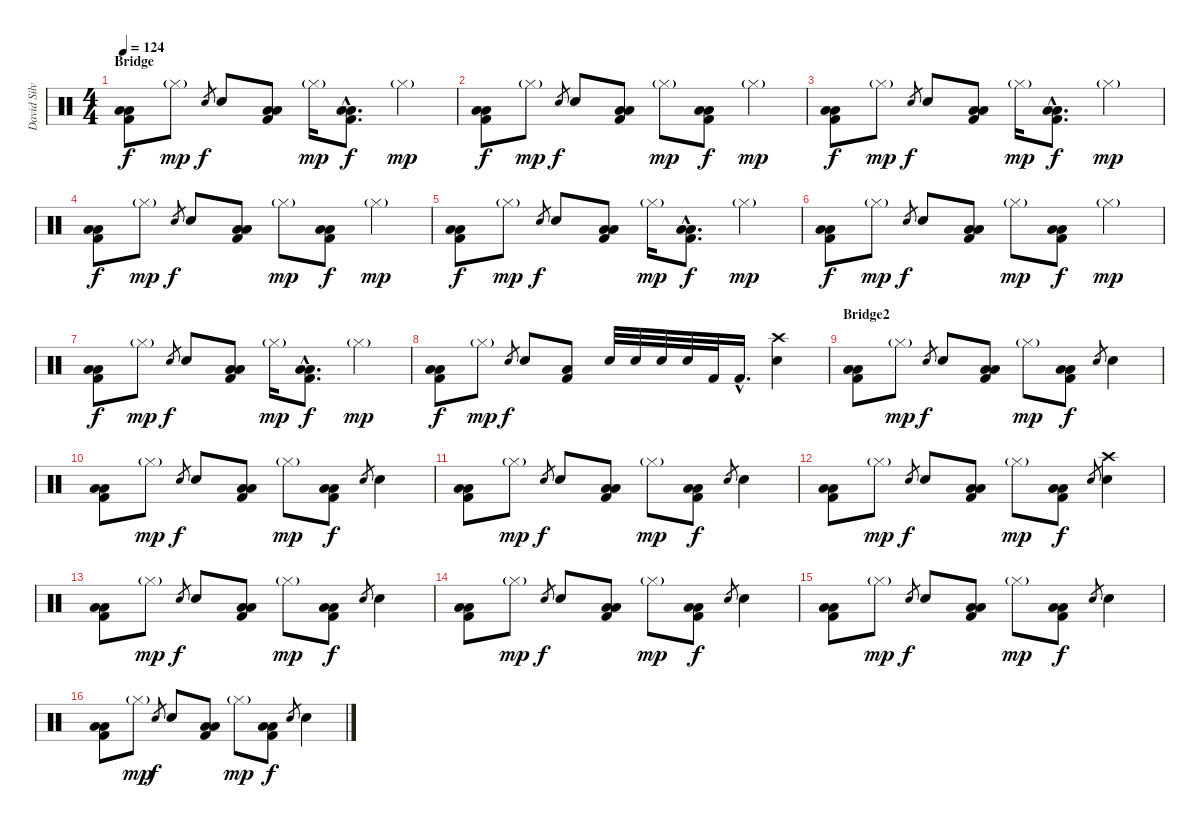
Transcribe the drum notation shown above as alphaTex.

\track ("David Silvera" "David Silv") {instrument percussion}
\staff {score}
\articulation defaults
\ts (4 4)
\section ("" "Bridge")
\tempo 124
\clef neutral
\ks c
("Low Floor Tom (hit)" "Low Tom (hit)" "Kick (hit) 2").8{dy f} "Hi-Hat (closed)"{g}.8{dy mp} "Electric Snare (hit)".8{gr dy f} "Electric Snare (hit)".8 ("Low Floor Tom (hit)" "Low Tom (hit)" "Kick (hit) 2").8 "Hi-Hat (closed)"{g}.16{dy mp} ("Low Floor Tom (hit)"{hac} "Low Tom (hit)"{hac} "Kick (hit) 2"{hac}).8{d dy f} "Hi-Hat (closed)"{g}.4{dy mp} |
("Low Floor Tom (hit)" "Low Tom (hit)" "Kick (hit) 2").8{dy f} "Hi-Hat (closed)"{g}.8{dy mp} "Electric Snare (hit)".8{gr dy f} "Electric Snare (hit)".8 ("Low Floor Tom (hit)" "Low Tom (hit)" "Kick (hit) 2").8 "Hi-Hat (closed)"{g}.8{dy mp} ("Low Floor Tom (hit)" "Low Tom (hit)" "Kick (hit) 2").8{dy f} "Hi-Hat (closed)"{g}.4{dy mp} |
("Low Floor Tom (hit)" "Low Tom (hit)" "Kick (hit) 2").8{dy f} "Hi-Hat (closed)"{g}.8{dy mp} "Electric Snare (hit)".8{gr dy f} "Electric Snare (hit)".8 ("Low Floor Tom (hit)" "Low Tom (hit)" "Kick (hit) 2").8 "Hi-Hat (closed)"{g}.16{dy mp} ("Low Floor Tom (hit)"{hac} "Low Tom (hit)"{hac} "Kick (hit) 2"{hac}).8{d dy f} "Hi-Hat (closed)"{g}.4{dy mp} |
("Low Floor Tom (hit)" "Low Tom (hit)" "Kick (hit) 2").8{dy f} "Hi-Hat (closed)"{g}.8{dy mp} "Electric Snare (hit)".8{gr dy f} "Electric Snare (hit)".8 ("Low Floor Tom (hit)" "Low Tom (hit)" "Kick (hit) 2").8 "Hi-Hat (closed)"{g}.8{dy mp} ("Low Floor Tom (hit)" "Low Tom (hit)" "Kick (hit) 2").8{dy f} "Hi-Hat (closed)"{g}.4{dy mp} |
("Low Floor Tom (hit)" "Low Tom (hit)" "Kick (hit) 2").8{dy f} "Hi-Hat (closed)"{g}.8{dy mp} "Electric Snare (hit)".8{gr dy f} "Electric Snare (hit)".8 ("Low Floor Tom (hit)" "Low Tom (hit)" "Kick (hit) 2").8 "Hi-Hat (closed)"{g}.16{dy mp} ("Low Floor Tom (hit)"{hac} "Low Tom (hit)"{hac} "Kick (hit) 2"{hac}).8{d dy f} "Hi-Hat (closed)"{g}.4{dy mp} |
("Low Floor Tom (hit)" "Low Tom (hit)" "Kick (hit) 2").8{dy f} "Hi-Hat (closed)"{g}.8{dy mp} "Electric Snare (hit)".8{gr dy f} "Electric Snare (hit)".8 ("Low Floor Tom (hit)" "Low Tom (hit)" "Kick (hit) 2").8 "Hi-Hat (closed)"{g}.8{dy mp} ("Low Floor Tom (hit)" "Low Tom (hit)" "Kick (hit) 2").8{dy f} "Hi-Hat (closed)"{g}.4{dy mp} |
("Low Floor Tom (hit)" "Low Tom (hit)" "Kick (hit) 2").8{dy f} "Hi-Hat (closed)"{g}.8{dy mp} "Electric Snare (hit)".8{gr dy f} "Electric Snare (hit)".8 ("Low Floor Tom (hit)" "Low Tom (hit)" "Kick (hit) 2").8 "Hi-Hat (closed)"{g}.16{dy mp} ("Low Floor Tom (hit)"{hac} "Low Tom (hit)"{hac} "Kick (hit) 2"{hac}).8{d dy f} "Hi-Hat (closed)"{g}.4{dy mp} |
("Low Floor Tom (hit)" "Low Tom (hit)" "Kick (hit) 2").8{dy f} "Hi-Hat (closed)"{g}.8{dy mp} "Electric Snare (hit)".8{gr dy f} "Electric Snare (hit)".8 ("Low Tom (hit)" "Kick (hit) 2").8 "Electric Snare (hit)".32 "Electric Snare (hit)".32 "Electric Snare (hit)".32 "Electric Snare (hit)".32 "Kick (hit) 2".32 "Kick (hit) 2"{hac}.16{d} ("Crash high (hit)" "Electric Snare (hit)").4 |
\section ("" "Bridge2")
("Low Floor Tom (hit)" "Low Tom (hit)" "Kick (hit) 2").8 "Hi-Hat (closed)"{g}.8{dy mp} "Electric Snare (hit)".8{gr dy f} "Electric Snare (hit)".8 ("Low Floor Tom (hit)" "Low Tom (hit)" "Kick (hit) 2").8 "Hi-Hat (closed)"{g}.8{dy mp} ("Low Floor Tom (hit)" "Low Tom (hit)" "Kick (hit) 2").8{dy f} "Electric Snare (hit)".8{gr} "Electric Snare (hit)".4 |
("Low Floor Tom (hit)" "Low Tom (hit)" "Kick (hit) 2").8 "Hi-Hat (closed)"{g}.8{dy mp} "Electric Snare (hit)".8{gr dy f} "Electric Snare (hit)".8 ("Low Floor Tom (hit)" "Low Tom (hit)" "Kick (hit) 2").8 "Hi-Hat (closed)"{g}.8{dy mp} ("Low Floor Tom (hit)" "Low Tom (hit)" "Kick (hit) 2").8{dy f} "Electric Snare (hit)".8{gr} "Electric Snare (hit)".4 |
("Low Floor Tom (hit)" "Low Tom (hit)" "Kick (hit) 2").8 "Hi-Hat (closed)"{g}.8{dy mp} "Electric Snare (hit)".8{gr dy f} "Electric Snare (hit)".8 ("Low Floor Tom (hit)" "Low Tom (hit)" "Kick (hit) 2").8 "Hi-Hat (closed)"{g}.8{dy mp} ("Low Floor Tom (hit)" "Low Tom (hit)" "Kick (hit) 2").8{dy f} "Electric Snare (hit)".8{gr} "Electric Snare (hit)".4 |
("Low Floor Tom (hit)" "Low Tom (hit)" "Kick (hit) 2").8 "Hi-Hat (closed)"{g}.8{dy mp} "Electric Snare (hit)".8{gr dy f} "Electric Snare (hit)".8 ("Low Floor Tom (hit)" "Low Tom (hit)" "Kick (hit) 2").8 "Hi-Hat (closed)"{g}.8{dy mp} ("Low Floor Tom (hit)" "Low Tom (hit)" "Kick (hit) 2").8{dy f} "Electric Snare (hit)".8{gr} ("Crash high (hit)" "Electric Snare (hit)").4 |
("Low Floor Tom (hit)" "Low Tom (hit)" "Kick (hit) 2").8 "Hi-Hat (closed)"{g}.8{dy mp} "Electric Snare (hit)".8{gr dy f} "Electric Snare (hit)".8 ("Low Floor Tom (hit)" "Low Tom (hit)" "Kick (hit) 2").8 "Hi-Hat (closed)"{g}.8{dy mp} ("Low Floor Tom (hit)" "Low Tom (hit)" "Kick (hit) 2").8{dy f} "Electric Snare (hit)".8{gr} "Electric Snare (hit)".4 |
("Low Floor Tom (hit)" "Low Tom (hit)" "Kick (hit) 2").8 "Hi-Hat (closed)"{g}.8{dy mp} "Electric Snare (hit)".8{gr dy f} "Electric Snare (hit)".8 ("Low Floor Tom (hit)" "Low Tom (hit)" "Kick (hit) 2").8 "Hi-Hat (closed)"{g}.8{dy mp} ("Low Floor Tom (hit)" "Low Tom (hit)" "Kick (hit) 2").8{dy f} "Electric Snare (hit)".8{gr} "Electric Snare (hit)".4 |
("Low Floor Tom (hit)" "Low Tom (hit)" "Kick (hit) 2").8 "Hi-Hat (closed)"{g}.8{dy mp} "Electric Snare (hit)".8{gr dy f} "Electric Snare (hit)".8 ("Low Floor Tom (hit)" "Low Tom (hit)" "Kick (hit) 2").8 "Hi-Hat (closed)"{g}.8{dy mp} ("Low Floor Tom (hit)" "Low Tom (hit)" "Kick (hit) 2").8{dy f} "Electric Snare (hit)".8{gr} "Electric Snare (hit)".4 |
("Low Floor Tom (hit)" "Low Tom (hit)" "Kick (hit) 2").8 "Hi-Hat (closed)"{g}.8{dy mp} "Electric Snare (hit)".8{gr dy f} "Electric Snare (hit)".8 ("Low Floor Tom (hit)" "Low Tom (hit)" "Kick (hit) 2").8 "Hi-Hat (closed)"{g}.8{dy mp} ("Low Floor Tom (hit)" "Low Tom (hit)" "Kick (hit) 2").8{dy f} "Electric Snare (hit)".8{gr} "Electric Snare (hit)".4
